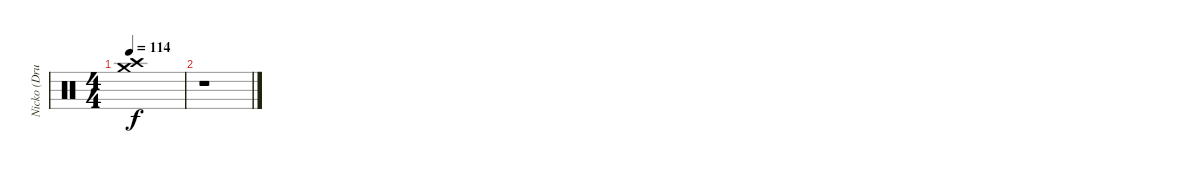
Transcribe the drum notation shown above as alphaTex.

\track ("Nicko (Drums)" "Nicko (Dru") {instrument percussion}
\staff {score}
\articulation defaults
\ts (4 4)
\tempo 114
\clef neutral
\ks c
("Crash high (hit)" "Crash medium (hit)").1{dy f} |
r.1
